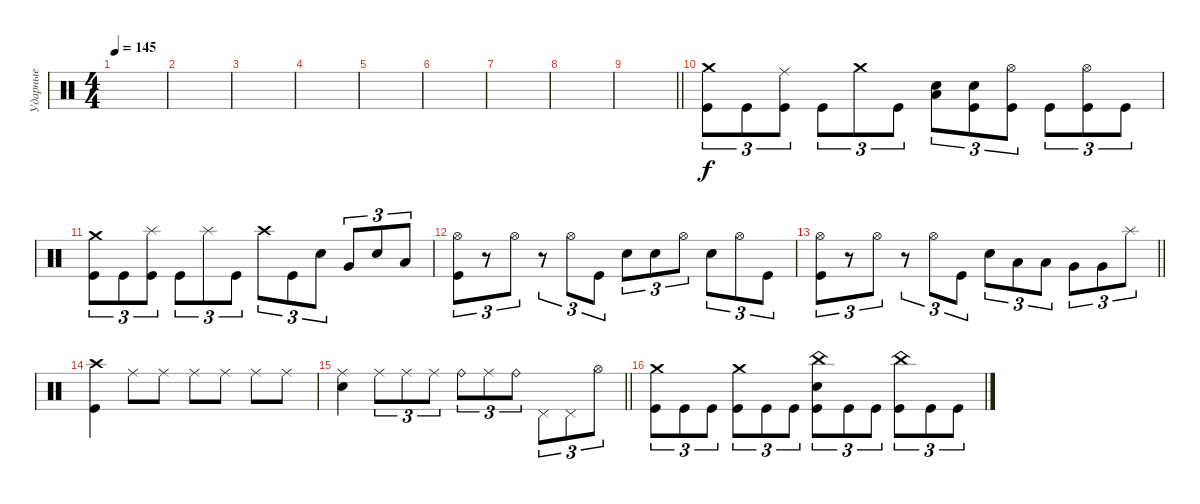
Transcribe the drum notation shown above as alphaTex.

\track ("Ударные" "Ударные") {instrument percussion}
\staff {score}
\articulation defaults
\ts (4 4)
\tempo 145
\clef neutral
\ks c
|
|
|
|
|
|
|
|
\barLineRight lightlight
|
\section ("" " ")
("Crash medium (hit)" "Kick (hit)").8{tu (3 2)} "Kick (hit)".8{tu (3 2)} ("Ride (middle)" "Kick (hit)").8{tu (3 2)} "Kick (hit)".8{tu (3 2)} "Crash medium (hit)".8{tu (3 2)} "Kick (hit)".8{tu (3 2)} ("Low Tom (hit)" "Electric Snare (hit)").8{tu (3 2)} ("Electric Snare (hit)" "Kick (hit)").8{tu (3 2)} ("Hi-Hat (open)" "Kick (hit)").8{tu (3 2)} "Kick (hit)".8{tu (3 2)} ("Hi-Hat (open)" "Kick (hit)").8{tu (3 2)} "Kick (hit)".8{tu (3 2)} |
("Crash medium (hit)" "Kick (hit)").8{tu (3 2)} "Kick (hit)".8{tu (3 2)} ("Splash (hit)" "Kick (hit)").8{tu (3 2)} "Kick (hit)".8{tu (3 2)} "Splash (hit)".8{tu (3 2)} "Kick (hit)".8{tu (3 2)} "Crash high (hit)".8{tu (3 2)} "Kick (hit)".8{tu (3 2)} "Electric Snare (hit)".8{tu (3 2)} "Very Low Tom (hit)".8{tu (3 2)} "Electric Snare (hit)".8{tu (3 2)} "Low Floor Tom (hit)".8{tu (3 2)} |
("Hi-Hat (open)" "Kick (hit)").8{tu (3 2)} r.8{tu (3 2)} "Hi-Hat (open)".8{tu (3 2)} r.8{tu (3 2)} "Hi-Hat (open)".8{tu (3 2)} "Kick (hit)".8{tu (3 2)} "Electric Snare (hit)".8{tu (3 2)} "Electric Snare (hit)".8{tu (3 2)} "Hi-Hat (open)".8{tu (3 2)} "Electric Snare (hit)".8{tu (3 2)} "Hi-Hat (open)".8{tu (3 2)} "Kick (hit)".8{tu (3 2)} |
\barLineRight lightlight
("Hi-Hat (open)" "Kick (hit)").8{tu (3 2)} r.8{tu (3 2)} "Hi-Hat (open)".8{tu (3 2)} r.8{tu (3 2)} "Hi-Hat (open)".8{tu (3 2)} "Kick (hit)".8{tu (3 2)} "Electric Snare (hit)".8{tu (3 2)} "Low Tom (hit)".8{tu (3 2)} "Low Tom (hit)".8{tu (3 2)} "Very Low Tom (hit)".8{tu (3 2)} "Very Low Tom (hit)".8{tu (3 2)} "Splash (hit)".8{tu (3 2)} |
\section ("" " ")
("Crash high (hit)" "Kick (hit)").4 "Ride (middle)".8 "Ride (middle)".8 "Ride (middle)".8 "Ride (middle)".8 "Ride (middle)".8 "Ride (middle)".8 |
\barLineRight lightlight
("Ride (middle)" "Electric Snare (hit)").4 "Ride (middle)".8{tu (3 2)} "Ride (middle)".8{tu (3 2)} "Ride (middle)".8{tu (3 2)} "Ride (bell)".8{tu (3 2)} "Ride (middle)".8{tu (3 2)} "Ride (bell)".8{tu (3 2)} "Pedal Hi-Hat (hit)".8{tu (3 2)} "Pedal Hi-Hat (hit)".8{tu (3 2)} "Hi-Hat (open)".8{tu (3 2)} |
\section ("" " ")
("Crash medium (hit)" "Kick (hit)").8{tu (3 2)} "Kick (hit)".8{tu (3 2)} "Kick (hit)".8{tu (3 2)} ("Crash medium (hit)" "Kick (hit)").8{tu (3 2)} "Kick (hit)".8{tu (3 2)} "Kick (hit)".8{tu (3 2)} ("China (hit)" "Electric Snare (hit)" "Kick (hit)").8{tu (3 2)} "Kick (hit)".8{tu (3 2)} "Kick (hit)".8{tu (3 2)} ("China (hit)" "Kick (hit)").8{tu (3 2)} "Kick (hit)".8{tu (3 2)} "Kick (hit)".8{tu (3 2)}
